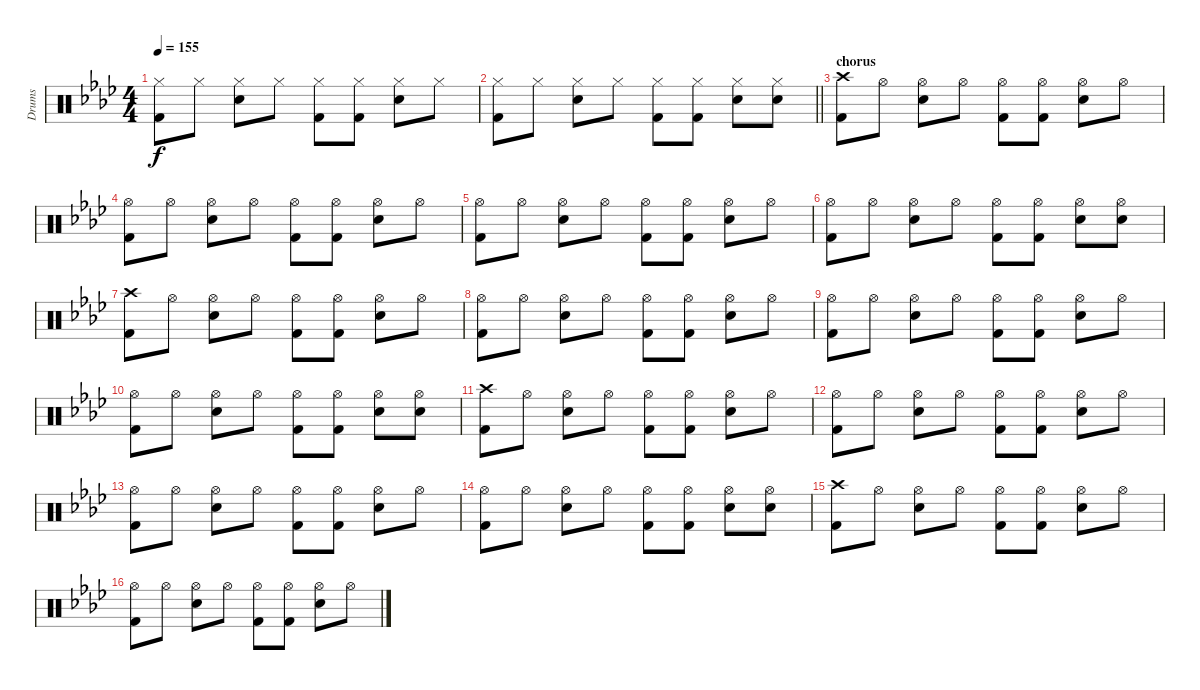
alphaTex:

\track ("Drums" "Drums") {instrument percussion}
\staff {score}
\articulation defaults
\ts (4 4)
\tempo 155
\clef neutral
\ks fminor
("Hi-Hat (closed)" "Kick (hit) 2").8{dy f} "Hi-Hat (closed)".8 ("Hi-Hat (closed)" "Snare (hit) 2").8 "Hi-Hat (closed)".8 ("Hi-Hat (closed)" "Kick (hit) 2").8 ("Hi-Hat (closed)" "Kick (hit) 2").8 ("Hi-Hat (closed)" "Snare (hit) 2").8 "Hi-Hat (closed)".8 |
\barLineRight lightlight
("Hi-Hat (closed)" "Kick (hit) 2").8 "Hi-Hat (closed)".8 ("Hi-Hat (closed)" "Snare (hit) 2").8 "Hi-Hat (closed)".8 ("Hi-Hat (closed)" "Kick (hit) 2").8 ("Hi-Hat (closed)" "Kick (hit) 2").8 ("Hi-Hat (closed)" "Snare (hit) 2").8 ("Hi-Hat (closed)" "Snare (hit) 2").8 |
\section ("" "chorus")
("Crash high (hit)" "Kick (hit) 2").8 "Hi-Hat (open)".8 ("Hi-Hat (open)" "Snare (hit) 2").8 "Hi-Hat (open)".8 ("Hi-Hat (open)" "Kick (hit) 2").8 ("Hi-Hat (open)" "Kick (hit) 2").8 ("Hi-Hat (open)" "Snare (hit) 2").8 "Hi-Hat (open)".8 |
("Hi-Hat (open)" "Kick (hit) 2").8 "Hi-Hat (open)".8 ("Hi-Hat (open)" "Snare (hit) 2").8 "Hi-Hat (open)".8 ("Hi-Hat (open)" "Kick (hit) 2").8 ("Hi-Hat (open)" "Kick (hit) 2").8 ("Hi-Hat (open)" "Snare (hit) 2").8 "Hi-Hat (open)".8 |
("Hi-Hat (open)" "Kick (hit) 2").8 "Hi-Hat (open)".8 ("Hi-Hat (open)" "Snare (hit) 2").8 "Hi-Hat (open)".8 ("Hi-Hat (open)" "Kick (hit) 2").8 ("Hi-Hat (open)" "Kick (hit) 2").8 ("Hi-Hat (open)" "Snare (hit) 2").8 "Hi-Hat (open)".8 |
("Hi-Hat (open)" "Kick (hit) 2").8 "Hi-Hat (open)".8 ("Hi-Hat (open)" "Snare (hit) 2").8 "Hi-Hat (open)".8 ("Hi-Hat (open)" "Kick (hit) 2").8 ("Hi-Hat (open)" "Kick (hit) 2").8 ("Hi-Hat (open)" "Snare (hit) 2").8 ("Hi-Hat (open)" "Snare (hit) 2").8 |
("Crash high (hit)" "Kick (hit) 2").8 "Hi-Hat (open)".8 ("Hi-Hat (open)" "Snare (hit) 2").8 "Hi-Hat (open)".8 ("Hi-Hat (open)" "Kick (hit) 2").8 ("Hi-Hat (open)" "Kick (hit) 2").8 ("Hi-Hat (open)" "Snare (hit) 2").8 "Hi-Hat (open)".8 |
("Hi-Hat (open)" "Kick (hit) 2").8 "Hi-Hat (open)".8 ("Hi-Hat (open)" "Snare (hit) 2").8 "Hi-Hat (open)".8 ("Hi-Hat (open)" "Kick (hit) 2").8 ("Hi-Hat (open)" "Kick (hit) 2").8 ("Hi-Hat (open)" "Snare (hit) 2").8 "Hi-Hat (open)".8 |
("Hi-Hat (open)" "Kick (hit) 2").8 "Hi-Hat (open)".8 ("Hi-Hat (open)" "Snare (hit) 2").8 "Hi-Hat (open)".8 ("Hi-Hat (open)" "Kick (hit) 2").8 ("Hi-Hat (open)" "Kick (hit) 2").8 ("Hi-Hat (open)" "Snare (hit) 2").8 "Hi-Hat (open)".8 |
("Hi-Hat (open)" "Kick (hit) 2").8 "Hi-Hat (open)".8 ("Hi-Hat (open)" "Snare (hit) 2").8 "Hi-Hat (open)".8 ("Hi-Hat (open)" "Kick (hit) 2").8 ("Hi-Hat (open)" "Kick (hit) 2").8 ("Hi-Hat (open)" "Snare (hit) 2").8 ("Hi-Hat (open)" "Snare (hit) 2").8 |
("Crash high (hit)" "Kick (hit) 2").8 "Hi-Hat (open)".8 ("Hi-Hat (open)" "Snare (hit) 2").8 "Hi-Hat (open)".8 ("Hi-Hat (open)" "Kick (hit) 2").8 ("Hi-Hat (open)" "Kick (hit) 2").8 ("Hi-Hat (open)" "Snare (hit) 2").8 "Hi-Hat (open)".8 |
("Hi-Hat (open)" "Kick (hit) 2").8 "Hi-Hat (open)".8 ("Hi-Hat (open)" "Snare (hit) 2").8 "Hi-Hat (open)".8 ("Hi-Hat (open)" "Kick (hit) 2").8 ("Hi-Hat (open)" "Kick (hit) 2").8 ("Hi-Hat (open)" "Snare (hit) 2").8 "Hi-Hat (open)".8 |
("Hi-Hat (open)" "Kick (hit) 2").8 "Hi-Hat (open)".8 ("Hi-Hat (open)" "Snare (hit) 2").8 "Hi-Hat (open)".8 ("Hi-Hat (open)" "Kick (hit) 2").8 ("Hi-Hat (open)" "Kick (hit) 2").8 ("Hi-Hat (open)" "Snare (hit) 2").8 "Hi-Hat (open)".8 |
("Hi-Hat (open)" "Kick (hit) 2").8 "Hi-Hat (open)".8 ("Hi-Hat (open)" "Snare (hit) 2").8 "Hi-Hat (open)".8 ("Hi-Hat (open)" "Kick (hit) 2").8 ("Hi-Hat (open)" "Kick (hit) 2").8 ("Hi-Hat (open)" "Snare (hit) 2").8 ("Hi-Hat (open)" "Snare (hit) 2").8 |
("Crash high (hit)" "Kick (hit) 2").8 "Hi-Hat (open)".8 ("Hi-Hat (open)" "Snare (hit) 2").8 "Hi-Hat (open)".8 ("Hi-Hat (open)" "Kick (hit) 2").8 ("Hi-Hat (open)" "Kick (hit) 2").8 ("Hi-Hat (open)" "Snare (hit) 2").8 "Hi-Hat (open)".8 |
("Hi-Hat (open)" "Kick (hit) 2").8 "Hi-Hat (open)".8 ("Hi-Hat (open)" "Snare (hit) 2").8 "Hi-Hat (open)".8 ("Hi-Hat (open)" "Kick (hit) 2").8 ("Hi-Hat (open)" "Kick (hit) 2").8 ("Hi-Hat (open)" "Snare (hit) 2").8 "Hi-Hat (open)".8
